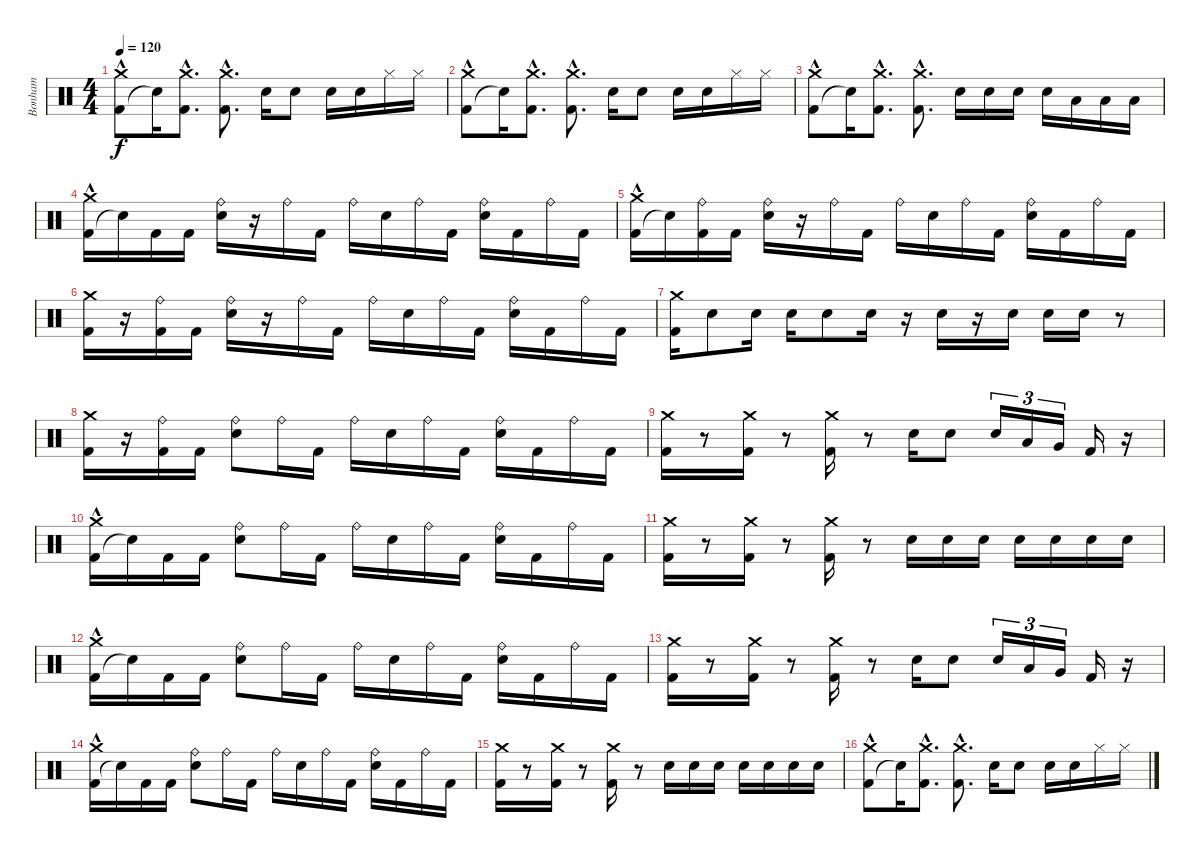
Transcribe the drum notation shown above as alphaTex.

\track ("Bonham" "Bonham") {instrument percussion}
\staff {score}
\articulation defaults
\ts (4 4)
\tempo 120
\clef neutral
\ks c
("Kick (hit) 2" "Crash medium (hit)"{hac}).8{dy f} "Snare (hit)"{t}.16 ("Kick (hit) 2"{hac} "Crash medium (hit)").8{d} ("Kick (hit) 2"{hac} "Crash medium (hit)").8{d} "Electric Snare (hit)".16 "Electric Snare (hit)".8 "Electric Snare (hit)".16 "Electric Snare (hit)".16 "Hi-Hat (closed)".16 "Hi-Hat (closed)".16 |
("Kick (hit) 2" "Crash medium (hit)"{hac}).8 "Snare (hit)"{t}.16 ("Kick (hit) 2"{hac} "Crash medium (hit)").8{d} ("Kick (hit) 2"{hac} "Crash medium (hit)").8{d} "Electric Snare (hit)".16 "Electric Snare (hit)".8 "Electric Snare (hit)".16 "Electric Snare (hit)".16 "Hi-Hat (closed)".16 "Hi-Hat (closed)".16 |
("Kick (hit) 2" "Crash medium (hit)"{hac}).8 "Snare (hit)"{t}.16 ("Kick (hit) 2"{hac} "Crash medium (hit)").8{d} ("Kick (hit) 2"{hac} "Crash medium (hit)").8{d} "Electric Snare (hit)".16 "Electric Snare (hit)".16 "Electric Snare (hit)".16 "Electric Snare (hit)".16 "Low Tom (hit)".16 "Low Tom (hit)".16 "Low Tom (hit)".16 |
("Kick (hit) 2" "Crash medium (hit)"{hac}).16 "Snare (hit)"{t}.16 "Kick (hit) 2".16 "Kick (hit) 2".16 ("Electric Snare (hit)" "Ride (bell)").16 r.16 "Ride (bell)".16 "Kick (hit) 2".16 "Ride (bell)".16 "Electric Snare (hit)".16 "Ride (bell)".16 "Kick (hit) 2".16 ("Ride (bell)" "Electric Snare (hit)").16 "Kick (hit) 2".16 "Ride (bell)".16 "Kick (hit) 2".16 |
("Kick (hit) 2" "Crash medium (hit)"{hac}).16 "Snare (hit)"{t}.16 ("Kick (hit) 2" "Ride (bell)").16 "Kick (hit) 2".16 ("Electric Snare (hit)" "Ride (bell)").16 r.16 "Ride (bell)".16 "Kick (hit) 2".16 "Ride (bell)".16 "Electric Snare (hit)".16 "Ride (bell)".16 "Kick (hit) 2".16 ("Ride (bell)" "Electric Snare (hit)").16 "Kick (hit) 2".16 "Ride (bell)".16 "Kick (hit) 2".16 |
("Crash medium (hit)" "Kick (hit) 2").16 r.16 ("Kick (hit) 2" "Ride (bell)").16 "Kick (hit) 2".16 ("Electric Snare (hit)" "Ride (bell)").16 r.16 "Ride (bell)".16 "Kick (hit) 2".16 "Ride (bell)".16 "Electric Snare (hit)".16 "Ride (bell)".16 "Kick (hit) 2".16 ("Ride (bell)" "Electric Snare (hit)").16 "Kick (hit) 2".16 "Ride (bell)".16 "Kick (hit) 2".16 |
("Crash medium (hit)" "Kick (hit) 2").16 "Electric Snare (hit)".8 "Electric Snare (hit)".16 "Electric Snare (hit)".16 "Electric Snare (hit)".8 "Electric Snare (hit)".16 r.16 "Electric Snare (hit)".16 r.16 "Electric Snare (hit)".16 "Electric Snare (hit)".16 "Electric Snare (hit)".16 r.8 |
("Kick (hit) 2" "Crash medium (hit)").16 r.16 ("Ride (bell)" "Kick (hit) 2").16 "Kick (hit) 2".16 ("Ride (bell)" "Electric Snare (hit)").8 "Ride (bell)".16 "Kick (hit) 2".16 "Ride (bell)".16 "Electric Snare (hit)".16 "Ride (bell)".16 "Kick (hit) 2".16 ("Ride (bell)" "Electric Snare (hit)").16 "Kick (hit) 2".16 "Ride (bell)".16 "Kick (hit) 2".16 |
("Kick (hit) 2" "Crash medium (hit)").16 r.8 ("Kick (hit) 2" "Crash medium (hit)").16 r.8 ("Kick (hit) 2" "Crash medium (hit)").16 r.8 "Electric Snare (hit)".16 "Electric Snare (hit)".8 "Electric Snare (hit)".16{tu (3 2)} "Low Tom (hit)".16{tu (3 2)} "Very Low Tom (hit)".16{tu (3 2)} "Kick (hit) 2".16 r.16 |
("Kick (hit) 2" "Crash medium (hit)"{hac}).16 "Snare (hit)"{t}.16 "Kick (hit) 2".16 "Kick (hit) 2".16 ("Ride (bell)" "Electric Snare (hit)").8 "Ride (bell)".16 "Kick (hit) 2".16 "Ride (bell)".16 "Electric Snare (hit)".16 "Ride (bell)".16 "Kick (hit) 2".16 ("Ride (bell)" "Electric Snare (hit)").16 "Kick (hit) 2".16 "Ride (bell)".16 "Kick (hit) 2".16 |
("Kick (hit) 2" "Crash medium (hit)").16 r.8 ("Kick (hit) 2" "Crash medium (hit)").16 r.8 ("Kick (hit) 2" "Crash medium (hit)").16 r.8 "Electric Snare (hit)".16 "Electric Snare (hit)".16 "Electric Snare (hit)".16 "Electric Snare (hit)".16 "Electric Snare (hit)".16 "Electric Snare (hit)".16 "Electric Snare (hit)".16 |
("Kick (hit) 2" "Crash medium (hit)"{hac}).16 "Snare (hit)"{t}.16 "Kick (hit) 2".16 "Kick (hit) 2".16 ("Ride (bell)" "Electric Snare (hit)").8 "Ride (bell)".16 "Kick (hit) 2".16 "Ride (bell)".16 "Electric Snare (hit)".16 "Ride (bell)".16 "Kick (hit) 2".16 ("Ride (bell)" "Electric Snare (hit)").16 "Kick (hit) 2".16 "Ride (bell)".16 "Kick (hit) 2".16 |
("Kick (hit) 2" "Crash medium (hit)").16 r.8 ("Kick (hit) 2" "Crash medium (hit)").16 r.8 ("Kick (hit) 2" "Crash medium (hit)").16 r.8 "Electric Snare (hit)".16 "Electric Snare (hit)".8 "Electric Snare (hit)".16{tu (3 2)} "Low Tom (hit)".16{tu (3 2)} "Very Low Tom (hit)".16{tu (3 2)} "Kick (hit) 2".16 r.16 |
("Kick (hit) 2" "Crash medium (hit)"{hac}).16 "Snare (hit)"{t}.16 "Kick (hit) 2".16 "Kick (hit) 2".16 ("Ride (bell)" "Electric Snare (hit)").8 "Ride (bell)".16 "Kick (hit) 2".16 "Ride (bell)".16 "Electric Snare (hit)".16 "Ride (bell)".16 "Kick (hit) 2".16 ("Ride (bell)" "Electric Snare (hit)").16 "Kick (hit) 2".16 "Ride (bell)".16 "Kick (hit) 2".16 |
("Kick (hit) 2" "Crash medium (hit)").16 r.8 ("Kick (hit) 2" "Crash medium (hit)").16 r.8 ("Kick (hit) 2" "Crash medium (hit)").16 r.8 "Electric Snare (hit)".16 "Electric Snare (hit)".16 "Electric Snare (hit)".16 "Electric Snare (hit)".16 "Electric Snare (hit)".16 "Electric Snare (hit)".16 "Electric Snare (hit)".16 |
("Kick (hit) 2" "Crash medium (hit)"{hac}).8 "Snare (hit)"{t}.16 ("Kick (hit) 2"{hac} "Crash medium (hit)").8{d} ("Kick (hit) 2"{hac} "Crash medium (hit)").8{d} "Electric Snare (hit)".16 "Electric Snare (hit)".8 "Electric Snare (hit)".16 "Electric Snare (hit)".16 "Hi-Hat (closed)".16 "Hi-Hat (closed)".16
